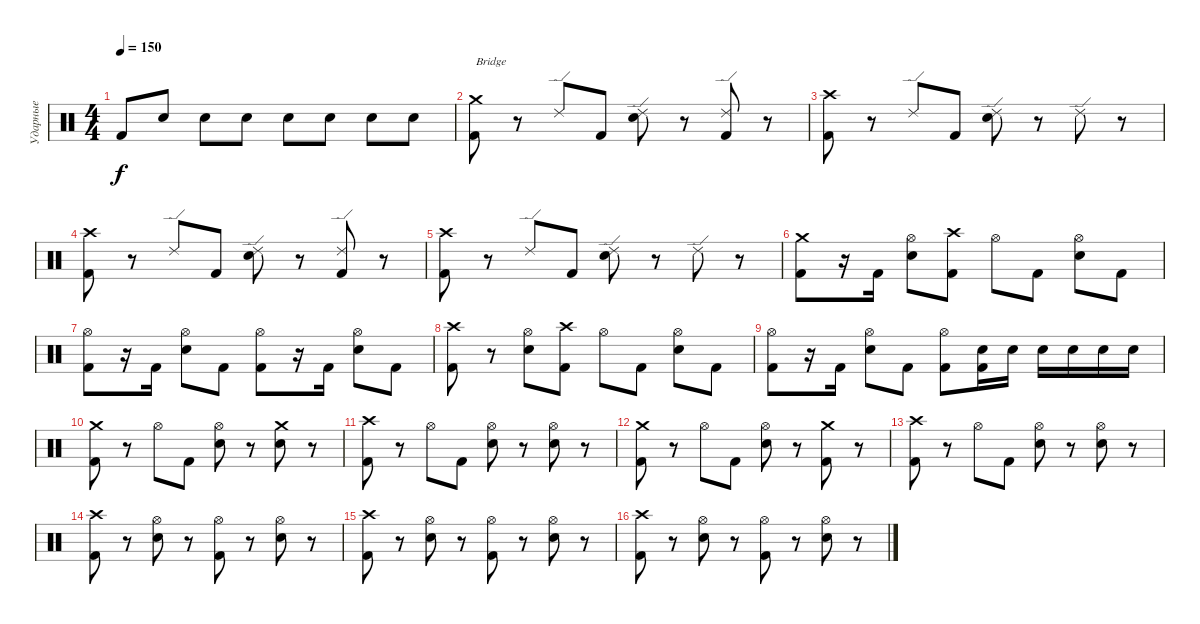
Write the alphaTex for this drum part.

\track ("Ударные" "Ударные") {instrument percussion}
\staff
\articulation defaults
\ts (4 4)
\tempo 150
\clef neutral
\ks c "Kick (hit) 2".8{dy f} "Snare (hit) 2".8 "Snare (hit) 2".8 "Snare (hit) 2".8 "Snare (hit) 2".8 "Snare (hit) 2".8 "Snare (hit) 2".8 "Snare (hit) 2".8
|
("Kick (hit) 2" "Crash medium (hit)").8{txt "Bridge"} r.8 "Ride (edge) 2".8 "Kick (hit) 2".8 ("Snare (hit) 2" "Ride (edge) 2").8 r.8 ("Kick (hit) 2" "Ride (edge) 2").8 r.8 |
("Kick (hit) 2" "Crash high (hit)").8 r.8 "Ride (edge) 2".8 "Kick (hit) 2".8 ("Snare (hit) 2" "Ride (edge) 2").8 r.8 "Ride (edge) 2".8 r.8 |
("Kick (hit) 2" "Crash high (hit)").8 r.8 "Ride (edge) 2".8 "Kick (hit) 2".8 ("Snare (hit) 2" "Ride (edge) 2").8 r.8 ("Kick (hit) 2" "Ride (edge) 2").8 r.8 |
("Kick (hit) 2" "Crash high (hit)").8 r.8 "Ride (edge) 2".8 "Kick (hit) 2".8 ("Snare (hit) 2" "Ride (edge) 2").8 r.8 "Ride (edge) 2".8 r.8 |
("Kick (hit) 2" "Crash medium (hit)").8 r.16 "Kick (hit) 2".16 ("Snare (hit) 2" "Hi-Hat (open)").8 ("Kick (hit) 2" "Crash high (hit)").8 "Hi-Hat (open)".8 "Kick (hit) 2".8 ("Snare (hit) 2" "Hi-Hat (open)").8 "Kick (hit) 2".8 |
("Kick (hit) 2" "Hi-Hat (open)").8 r.16 "Kick (hit) 2".16 ("Snare (hit) 2" "Hi-Hat (open)").8 "Kick (hit) 2".8 ("Kick (hit) 2" "Hi-Hat (open)").8 r.16 "Kick (hit) 2".16 ("Snare (hit) 2" "Hi-Hat (open)").8 "Kick (hit) 2".8 |
("Kick (hit) 2" "Crash high (hit)").8 r.8 ("Snare (hit) 2" "Hi-Hat (open)").8 ("Kick (hit) 2" "Crash high (hit)").8 "Hi-Hat (open)".8 "Kick (hit) 2".8 ("Snare (hit) 2" "Hi-Hat (open)").8 "Kick (hit) 2".8 |
("Kick (hit) 2" "Hi-Hat (open)").8 r.16 "Kick (hit) 2".16 ("Snare (hit) 2" "Hi-Hat (open)").8 "Kick (hit) 2".8 ("Kick (hit) 2" "Hi-Hat (open)").8 ("Kick (hit) 2" "Snare (hit) 2").16 "Snare (hit) 2".16 "Snare (hit) 2".16 "Snare (hit) 2".16 "Snare (hit) 2".16 "Snare (hit) 2".16 |
("Kick (hit) 2" "Crash medium (hit)").8 r.8 "Hi-Hat (open)".8 "Kick (hit) 2".8 ("Snare (hit) 2" "Hi-Hat (open)").8 r.8 ("Snare (hit) 2" "Crash medium (hit)").8 r.8 |
("Kick (hit) 2" "Crash high (hit)").8 r.8 "Hi-Hat (open)".8 "Kick (hit) 2".8 ("Snare (hit) 2" "Hi-Hat (open)").8 r.8 ("Snare (hit) 2" "Hi-Hat (open)").8 r.8 |
("Kick (hit) 2" "Crash medium (hit)").8 r.8 "Hi-Hat (open)".8 "Kick (hit) 2".8 ("Snare (hit) 2" "Hi-Hat (open)").8 r.8 ("Kick (hit) 2" "Crash medium (hit)").8 r.8 |
("Kick (hit) 2" "Crash high (hit)").8 r.8 "Hi-Hat (open)".8 "Kick (hit) 2".8 ("Snare (hit) 2" "Hi-Hat (open)").8 r.8 ("Snare (hit) 2" "Hi-Hat (open)").8 r.8 |
("Kick (hit) 2" "Crash high (hit)").8 r.8 ("Snare (hit) 2" "Hi-Hat (open)").8 r.8 ("Kick (hit) 2" "Hi-Hat (open)").8 r.8 ("Snare (hit) 2" "Hi-Hat (open)").8 r.8 |
("Kick (hit) 2" "Crash high (hit)").8 r.8 ("Snare (hit) 2" "Hi-Hat (open)").8 r.8 ("Kick (hit) 2" "Hi-Hat (open)").8 r.8 ("Snare (hit) 2" "Hi-Hat (open)").8 r.8 |
("Kick (hit) 2" "Crash high (hit)").8 r.8 ("Snare (hit) 2" "Hi-Hat (open)").8 r.8 ("Kick (hit) 2" "Hi-Hat (open)").8 r.8 ("Snare (hit) 2" "Hi-Hat (open)").8 r.8
